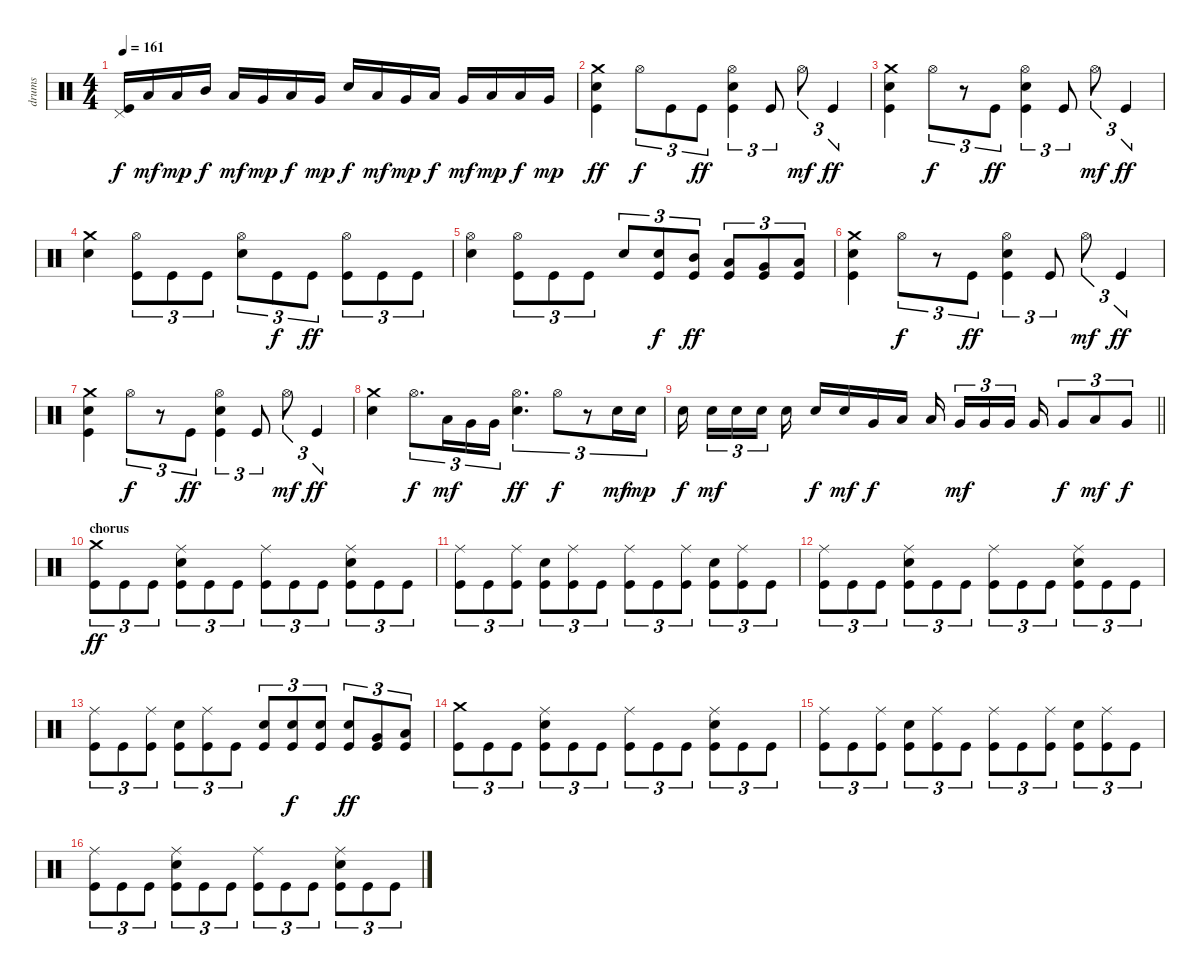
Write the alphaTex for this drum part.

\track ("drums" "drums") {instrument percussion}
\staff {score}
\articulation defaults
\ts (4 4)
\tempo 161
\clef neutral
\ks c
("Pedal Hi-Hat (hit)" "Kick (hit)").16{dy f} "Low Tom (hit)".16{dy mf} "Low Tom (hit)".16{dy mp} "Mid Tom (hit)".16{dy f} "Low Tom (hit)".16{dy mf} "Very Low Tom (hit)".16{dy mp} "Low Tom (hit)".16{dy f} "Very Low Tom (hit)".16{dy mp} "Electric Snare (hit)".16{dy f} "Low Tom (hit)".16{dy mf} "Very Low Tom (hit)".16{dy mp} "Low Tom (hit)".16{dy f} "Very Low Tom (hit)".16{dy mf} "Low Floor Tom (hit)".16{dy mp} "Low Tom (hit)".16{dy f} "Very Low Tom (hit)".16{dy mp} |
("Crash medium (hit)" "Electric Snare (hit)" "Kick (hit)").4{dy ff} "Hi-Hat (open)".8{tu (3 2) dy f} "Kick (hit)".8{tu (3 2)} "Kick (hit)".8{tu (3 2) dy ff} ("Hi-Hat (open)" "Electric Snare (hit)" "Kick (hit)").4{tu (3 2)} "Kick (hit)".8{tu (3 2)} "Hi-Hat (open)".8{tu (3 2) dy mf} "Kick (hit)".4{tu (3 2) dy ff} |
("Crash medium (hit)" "Electric Snare (hit)" "Kick (hit)").4 "Hi-Hat (open)".8{tu (3 2) dy f} r.8{tu (3 2)} "Kick (hit)".8{tu (3 2) dy ff} ("Hi-Hat (open)" "Electric Snare (hit)" "Kick (hit)").4{tu (3 2)} "Kick (hit)".8{tu (3 2)} "Hi-Hat (open)".8{tu (3 2) dy mf} "Kick (hit)".4{tu (3 2) dy ff} |
("Crash medium (hit)" "Electric Snare (hit)").4 ("Hi-Hat (open)" "Kick (hit)").8{tu (3 2)} "Kick (hit)".8{tu (3 2)} "Kick (hit)".8{tu (3 2)} ("Hi-Hat (open)" "Electric Snare (hit)").8{tu (3 2)} "Kick (hit)".8{tu (3 2) dy f} "Kick (hit)".8{tu (3 2) dy ff} ("Hi-Hat (open)" "Kick (hit)").8{tu (3 2)} "Kick (hit)".8{tu (3 2)} "Kick (hit)".8{tu (3 2)} |
("Hi-Hat (open)" "Electric Snare (hit)").4 ("Hi-Hat (open)" "Kick (hit)").8{tu (3 2)} "Kick (hit)".8{tu (3 2)} "Kick (hit)".8{tu (3 2)} "Electric Snare (hit)".8{tu (3 2)} ("Electric Snare (hit)" "Kick (hit)").8{tu (3 2) dy f} ("Mid Tom (hit)" "Kick (hit)").8{tu (3 2) dy ff} ("Low Tom (hit)" "Kick (hit)").8{tu (3 2)} ("Very Low Tom (hit)" "Kick (hit)").8{tu (3 2)} ("Low Floor Tom (hit)" "Kick (hit)").8{tu (3 2)} |
("Crash medium (hit)" "Electric Snare (hit)" "Kick (hit)").4 "Hi-Hat (open)".8{tu (3 2) dy f} r.8{tu (3 2)} "Kick (hit)".8{tu (3 2) dy ff} ("Hi-Hat (open)" "Electric Snare (hit)" "Kick (hit)").4{tu (3 2)} "Kick (hit)".8{tu (3 2)} "Hi-Hat (open)".8{tu (3 2) dy mf} "Kick (hit)".4{tu (3 2) dy ff} |
("Crash medium (hit)" "Electric Snare (hit)" "Kick (hit)").4 "Hi-Hat (open)".8{tu (3 2) dy f} r.8{tu (3 2)} "Kick (hit)".8{tu (3 2) dy ff} ("Hi-Hat (open)" "Electric Snare (hit)" "Kick (hit)").4{tu (3 2)} "Kick (hit)".8{tu (3 2)} "Hi-Hat (open)".8{tu (3 2) dy mf} "Kick (hit)".4{tu (3 2) dy ff} |
("Crash medium (hit)" "Electric Snare (hit)").4 "Hi-Hat (open)".8{d tu (3 2) dy f} "Low Tom (hit)".16{tu (3 2) dy mf} "Very Low Tom (hit)".16{tu (3 2)} "Very Low Tom (hit)".16{tu (3 2)} ("Hi-Hat (open)" "Electric Snare (hit)").4{d tu (3 2) dy ff} "Hi-Hat (open)".8{tu (3 2) dy f} r.8{tu (3 2)} "Electric Snare (hit)".16{tu (3 2) dy mf} "Electric Snare (hit)".16{tu (3 2) dy mp} |
\barLineRight lightlight "Electric Snare (hit)".16{dy f beam splitsecondary} "Electric Snare (hit)".16{tu (3 2) dy mf} "Electric Snare (hit)".16{tu (3 2)} "Electric Snare (hit)".16{tu (3 2) beam splitsecondary} "Electric Snare (hit)".16 "Electric Snare (hit)".16{dy f} "Electric Snare (hit)".16{dy mf} "Very Low Tom (hit)".16{dy f} "Low Floor Tom (hit)".16 "Low Tom (hit)".16{beam splitsecondary} "Very Low Tom (hit)".16{tu (3 2) dy mf} "Very Low Tom (hit)".16{tu (3 2)} "Very Low Tom (hit)".16{tu (3 2) beam splitsecondary} "Very Low Tom (hit)".16 "Very Low Tom (hit)".8{tu (3 2) dy f} "Low Floor Tom (hit)".8{tu (3 2) dy mf} "Very Low Tom (hit)".8{tu (3 2) dy f}
|
\section ("" "chorus")
("Crash medium (hit)" "Kick (hit)").8{tu (3 2) dy ff} "Kick (hit)".8{tu (3 2)} "Kick (hit)".8{tu (3 2)} ("Ride (middle)" "Electric Snare (hit)" "Kick (hit)").8{tu (3 2)} "Kick (hit)".8{tu (3 2)} "Kick (hit)".8{tu (3 2)} ("Ride (middle)" "Kick (hit)").8{tu (3 2)} "Kick (hit)".8{tu (3 2)} "Kick (hit)".8{tu (3 2)} ("Ride (middle)" "Electric Snare (hit)" "Kick (hit)").8{tu (3 2)} "Kick (hit)".8{tu (3 2)} "Kick (hit)".8{tu (3 2)} |
("Ride (middle)" "Kick (hit)").8{tu (3 2)} "Kick (hit)".8{tu (3 2)} ("Ride (middle)" "Kick (hit)").8{tu (3 2)} ("Electric Snare (hit)" "Kick (hit)").8{tu (3 2)} ("Ride (middle)" "Kick (hit)").8{tu (3 2)} "Kick (hit)".8{tu (3 2)} ("Ride (middle)" "Kick (hit)").8{tu (3 2)} "Kick (hit)".8{tu (3 2)} ("Ride (middle)" "Kick (hit)").8{tu (3 2)} ("Electric Snare (hit)" "Kick (hit)").8{tu (3 2)} ("Ride (middle)" "Kick (hit)").8{tu (3 2)} "Kick (hit)".8{tu (3 2)} |
("Ride (middle)" "Kick (hit)").8{tu (3 2)} "Kick (hit)".8{tu (3 2)} "Kick (hit)".8{tu (3 2)} ("Ride (middle)" "Electric Snare (hit)" "Kick (hit)").8{tu (3 2)} "Kick (hit)".8{tu (3 2)} "Kick (hit)".8{tu (3 2)} ("Ride (middle)" "Kick (hit)").8{tu (3 2)} "Kick (hit)".8{tu (3 2)} "Kick (hit)".8{tu (3 2)} ("Ride (middle)" "Electric Snare (hit)" "Kick (hit)").8{tu (3 2)} "Kick (hit)".8{tu (3 2)} "Kick (hit)".8{tu (3 2)} |
("Ride (middle)" "Kick (hit)").8{tu (3 2)} "Kick (hit)".8{tu (3 2)} ("Ride (middle)" "Kick (hit)").8{tu (3 2)} ("Electric Snare (hit)" "Kick (hit)").8{tu (3 2)} ("Ride (middle)" "Kick (hit)").8{tu (3 2)} "Kick (hit)".8{tu (3 2)} ("Electric Snare (hit)" "Kick (hit)").8{tu (3 2)} ("Electric Snare (hit)" "Kick (hit)").8{tu (3 2) dy f} ("Electric Snare (hit)" "Kick (hit)").8{tu (3 2)} ("Electric Snare (hit)" "Kick (hit)").8{tu (3 2) dy ff} ("Very Low Tom (hit)" "Kick (hit)").8{tu (3 2)} ("Low Floor Tom (hit)" "Kick (hit)").8{tu (3 2)} |
("Crash medium (hit)" "Kick (hit)").8{tu (3 2)} "Kick (hit)".8{tu (3 2)} "Kick (hit)".8{tu (3 2)} ("Ride (middle)" "Electric Snare (hit)" "Kick (hit)").8{tu (3 2)} "Kick (hit)".8{tu (3 2)} "Kick (hit)".8{tu (3 2)} ("Ride (middle)" "Kick (hit)").8{tu (3 2)} "Kick (hit)".8{tu (3 2)} "Kick (hit)".8{tu (3 2)} ("Ride (middle)" "Electric Snare (hit)" "Kick (hit)").8{tu (3 2)} "Kick (hit)".8{tu (3 2)} "Kick (hit)".8{tu (3 2)} |
("Ride (middle)" "Kick (hit)").8{tu (3 2)} "Kick (hit)".8{tu (3 2)} ("Ride (middle)" "Kick (hit)").8{tu (3 2)} ("Electric Snare (hit)" "Kick (hit)").8{tu (3 2)} ("Ride (middle)" "Kick (hit)").8{tu (3 2)} "Kick (hit)".8{tu (3 2)} ("Ride (middle)" "Kick (hit)").8{tu (3 2)} "Kick (hit)".8{tu (3 2)} ("Ride (middle)" "Kick (hit)").8{tu (3 2)} ("Electric Snare (hit)" "Kick (hit)").8{tu (3 2)} ("Ride (middle)" "Kick (hit)").8{tu (3 2)} "Kick (hit)".8{tu (3 2)} |
("Ride (middle)" "Kick (hit)").8{tu (3 2)} "Kick (hit)".8{tu (3 2)} "Kick (hit)".8{tu (3 2)} ("Ride (middle)" "Electric Snare (hit)" "Kick (hit)").8{tu (3 2)} "Kick (hit)".8{tu (3 2)} "Kick (hit)".8{tu (3 2)} ("Ride (middle)" "Kick (hit)").8{tu (3 2)} "Kick (hit)".8{tu (3 2)} "Kick (hit)".8{tu (3 2)} ("Ride (middle)" "Electric Snare (hit)" "Kick (hit)").8{tu (3 2)} "Kick (hit)".8{tu (3 2)} "Kick (hit)".8{tu (3 2)}
